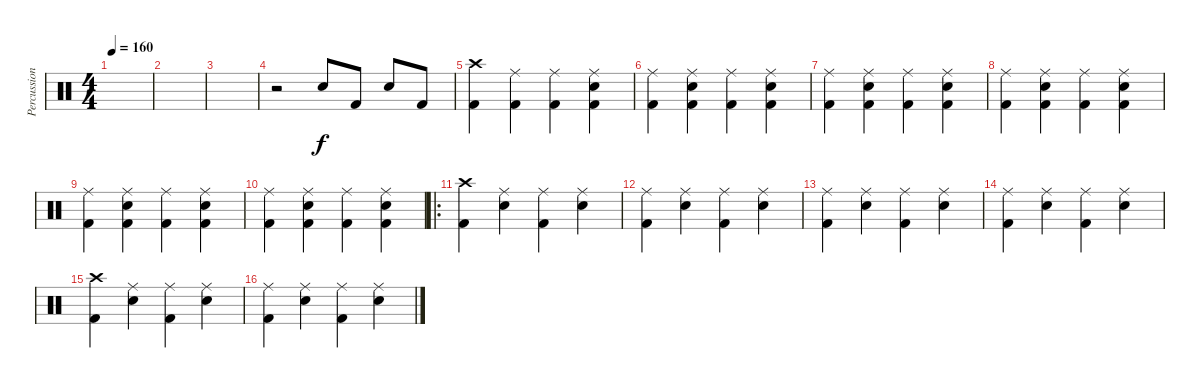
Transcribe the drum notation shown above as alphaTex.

\track ("Percussion" "Percussion") {instrument percussion}
\staff {score}
\articulation defaults
\ts (4 4)
\tempo 160
\clef neutral
\ks c
|
|
|
r.2 "Snare (hit) 2".8 "Kick (hit) 2".8 "Snare (hit) 2".8 "Kick (hit) 2".8 |
("Crash high (hit)" "Kick (hit) 2").4 ("Ride (middle)" "Kick (hit) 2").4 ("Ride (middle)" "Kick (hit) 2").4 ("Ride (middle)" "Snare (hit) 2" "Kick (hit) 2").4 |
("Ride (middle)" "Kick (hit) 2").4 ("Ride (middle)" "Snare (hit) 2" "Kick (hit) 2").4 ("Ride (middle)" "Kick (hit) 2").4 ("Ride (middle)" "Snare (hit) 2" "Kick (hit) 2").4 |
("Ride (middle)" "Kick (hit) 2").4 ("Ride (middle)" "Snare (hit) 2" "Kick (hit) 2").4 ("Ride (middle)" "Kick (hit) 2").4 ("Ride (middle)" "Snare (hit) 2" "Kick (hit) 2").4 |
("Ride (middle)" "Kick (hit) 2").4 ("Ride (middle)" "Snare (hit) 2" "Kick (hit) 2").4 ("Ride (middle)" "Kick (hit) 2").4 ("Ride (middle)" "Snare (hit) 2" "Kick (hit) 2").4 |
("Ride (middle)" "Kick (hit) 2").4 ("Ride (middle)" "Snare (hit) 2" "Kick (hit) 2").4 ("Ride (middle)" "Kick (hit) 2").4 ("Ride (middle)" "Snare (hit) 2" "Kick (hit) 2").4 |
("Ride (middle)" "Kick (hit) 2").4 ("Ride (middle)" "Snare (hit) 2" "Kick (hit) 2").4 ("Ride (middle)" "Kick (hit) 2").4 ("Ride (middle)" "Snare (hit) 2" "Kick (hit) 2").4 |
\ro
("Crash high (hit)" "Kick (hit) 2").4 ("Ride (middle)" "Snare (hit) 2").4 ("Ride (middle)" "Kick (hit) 2").4 ("Ride (middle)" "Snare (hit) 2").4 |
("Ride (middle)" "Kick (hit) 2").4 ("Ride (middle)" "Snare (hit) 2").4 ("Ride (middle)" "Kick (hit) 2").4 ("Ride (middle)" "Snare (hit) 2").4 |
("Ride (middle)" "Kick (hit) 2").4 ("Ride (middle)" "Snare (hit) 2").4 ("Ride (middle)" "Kick (hit) 2").4 ("Ride (middle)" "Snare (hit) 2").4 |
("Ride (middle)" "Kick (hit) 2").4 ("Ride (middle)" "Snare (hit) 2").4 ("Ride (middle)" "Kick (hit) 2").4 ("Ride (middle)" "Snare (hit) 2").4 |
("Crash high (hit)" "Kick (hit) 2").4 ("Ride (middle)" "Snare (hit) 2").4 ("Ride (middle)" "Kick (hit) 2").4 ("Ride (middle)" "Snare (hit) 2").4 |
("Ride (middle)" "Kick (hit) 2").4 ("Ride (middle)" "Snare (hit) 2").4 ("Ride (middle)" "Kick (hit) 2").4 ("Ride (middle)" "Snare (hit) 2").4
